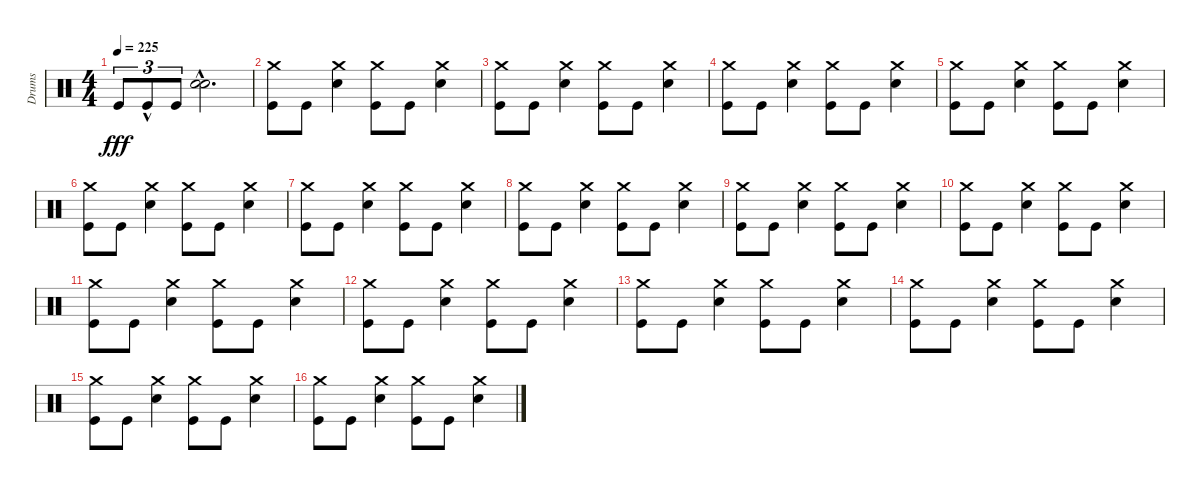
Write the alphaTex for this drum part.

\track ("Drums" "Drums") {instrument percussion}
\staff {score}
\articulation defaults
\ts (4 4)
\tempo 225
\clef neutral
\ks c "Kick (hit)".8{tu (3 2) dy fff} "Kick (hit)"{hac}.8{tu (3 2)} "Kick (hit)".8{tu (3 2)}
("Snare (hit) 2"{hac} "Snare (hit) 2").2{d} |
("Kick (hit)" "Crash medium (hit)").8 "Kick (hit)".8 ("Snare (hit) 2" "Crash medium (hit)").4 ("Kick (hit)" "Crash medium (hit)").8 "Kick (hit)".8 ("Snare (hit) 2" "Crash medium (hit)").4 |
("Kick (hit)" "Crash medium (hit)").8 "Kick (hit)".8 ("Snare (hit) 2" "Crash medium (hit)").4 ("Kick (hit)" "Crash medium (hit)").8 "Kick (hit)".8 ("Snare (hit) 2" "Crash medium (hit)").4 |
("Kick (hit)" "Crash medium (hit)").8 "Kick (hit)".8 ("Snare (hit) 2" "Crash medium (hit)").4 ("Kick (hit)" "Crash medium (hit)").8 "Kick (hit)".8 ("Snare (hit) 2" "Crash medium (hit)").4 |
("Kick (hit)" "Crash medium (hit)").8 "Kick (hit)".8 ("Snare (hit) 2" "Crash medium (hit)").4 ("Kick (hit)" "Crash medium (hit)").8 "Kick (hit)".8 ("Snare (hit) 2" "Crash medium (hit)").4 |
("Kick (hit)" "Crash medium (hit)").8 "Kick (hit)".8 ("Snare (hit) 2" "Crash medium (hit)").4 ("Kick (hit)" "Crash medium (hit)").8 "Kick (hit)".8 ("Snare (hit) 2" "Crash medium (hit)").4 |
("Kick (hit)" "Crash medium (hit)").8 "Kick (hit)".8 ("Snare (hit) 2" "Crash medium (hit)").4 ("Kick (hit)" "Crash medium (hit)").8 "Kick (hit)".8 ("Snare (hit) 2" "Crash medium (hit)").4 |
("Kick (hit)" "Crash medium (hit)").8 "Kick (hit)".8 ("Snare (hit) 2" "Crash medium (hit)").4 ("Kick (hit)" "Crash medium (hit)").8 "Kick (hit)".8 ("Snare (hit) 2" "Crash medium (hit)").4 |
("Kick (hit)" "Crash medium (hit)").8 "Kick (hit)".8 ("Snare (hit) 2" "Crash medium (hit)").4 ("Kick (hit)" "Crash medium (hit)").8 "Kick (hit)".8 ("Snare (hit) 2" "Crash medium (hit)").4 |
("Kick (hit)" "Crash medium (hit)").8 "Kick (hit)".8 ("Snare (hit) 2" "Crash medium (hit)").4 ("Kick (hit)" "Crash medium (hit)").8 "Kick (hit)".8 ("Snare (hit) 2" "Crash medium (hit)").4 |
("Kick (hit)" "Crash medium (hit)").8 "Kick (hit)".8 ("Snare (hit) 2" "Crash medium (hit)").4 ("Kick (hit)" "Crash medium (hit)").8 "Kick (hit)".8 ("Snare (hit) 2" "Crash medium (hit)").4 |
("Kick (hit)" "Crash medium (hit)").8 "Kick (hit)".8 ("Snare (hit) 2" "Crash medium (hit)").4 ("Kick (hit)" "Crash medium (hit)").8 "Kick (hit)".8 ("Snare (hit) 2" "Crash medium (hit)").4 |
("Kick (hit)" "Crash medium (hit)").8 "Kick (hit)".8 ("Snare (hit) 2" "Crash medium (hit)").4 ("Kick (hit)" "Crash medium (hit)").8 "Kick (hit)".8 ("Snare (hit) 2" "Crash medium (hit)").4 |
("Kick (hit)" "Crash medium (hit)").8 "Kick (hit)".8 ("Snare (hit) 2" "Crash medium (hit)").4 ("Kick (hit)" "Crash medium (hit)").8 "Kick (hit)".8 ("Snare (hit) 2" "Crash medium (hit)").4 |
("Kick (hit)" "Crash medium (hit)").8 "Kick (hit)".8 ("Snare (hit) 2" "Crash medium (hit)").4 ("Kick (hit)" "Crash medium (hit)").8 "Kick (hit)".8 ("Snare (hit) 2" "Crash medium (hit)").4 |
("Kick (hit)" "Crash medium (hit)").8 "Kick (hit)".8 ("Snare (hit) 2" "Crash medium (hit)").4 ("Kick (hit)" "Crash medium (hit)").8 "Kick (hit)".8 ("Snare (hit) 2" "Crash medium (hit)").4
